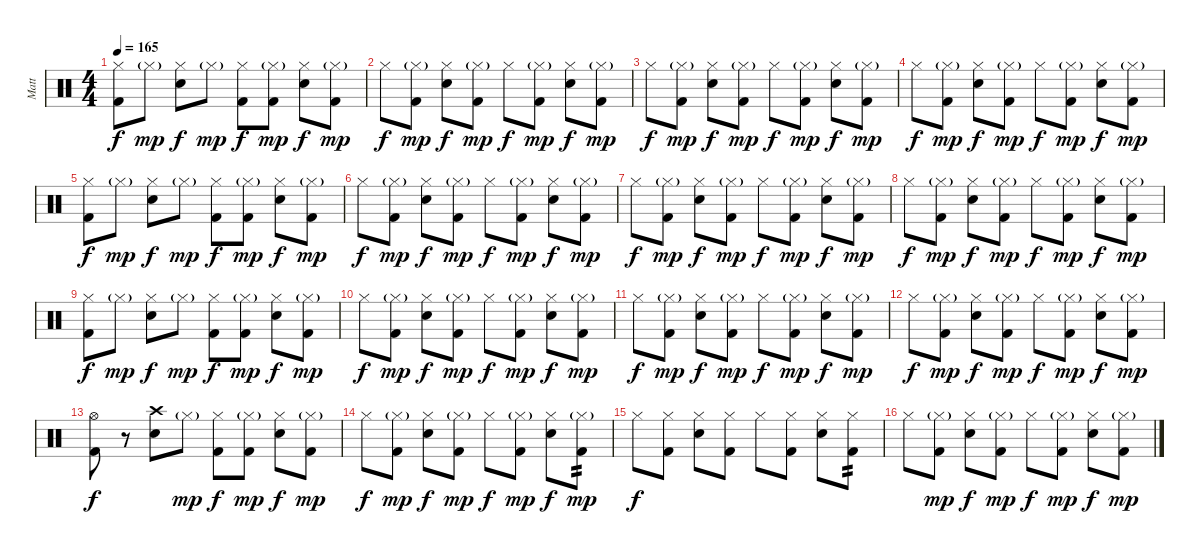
\track ("Matt" "Matt") {instrument percussion}
\staff {score}
\articulation defaults
\ts (4 4)
\tempo 165
\clef neutral
\ks c
("Hi-Hat (closed)" "Kick (hit) 2").8{dy f} "Hi-Hat (closed)"{g}.8{dy mp} ("Hi-Hat (closed)" "Snare (hit) 2").8{dy f} "Hi-Hat (closed)"{g}.8{dy mp} ("Hi-Hat (closed)" "Kick (hit) 2").8{dy f} ("Hi-Hat (closed)"{g} "Kick (hit) 2").8{dy mp} ("Hi-Hat (closed)" "Snare (hit) 2").8{dy f} ("Hi-Hat (closed)"{g} "Kick (hit) 2").8{dy mp} |
"Hi-Hat (closed)".8{dy f} ("Hi-Hat (closed)"{g} "Kick (hit) 2").8{dy mp} ("Hi-Hat (closed)" "Snare (hit) 2").8{dy f} ("Hi-Hat (closed)"{g} "Kick (hit) 2").8{dy mp} "Hi-Hat (closed)".8{dy f} ("Hi-Hat (closed)"{g} "Kick (hit) 2").8{dy mp} ("Hi-Hat (closed)" "Snare (hit) 2").8{dy f} ("Hi-Hat (closed)"{g} "Kick (hit) 2").8{dy mp} |
"Hi-Hat (closed)".8{dy f} ("Hi-Hat (closed)"{g} "Kick (hit) 2").8{dy mp} ("Hi-Hat (closed)" "Snare (hit) 2").8{dy f} ("Hi-Hat (closed)"{g} "Kick (hit) 2").8{dy mp} "Hi-Hat (closed)".8{dy f} ("Hi-Hat (closed)"{g} "Kick (hit) 2").8{dy mp} ("Hi-Hat (closed)" "Snare (hit) 2").8{dy f} ("Hi-Hat (closed)"{g} "Kick (hit) 2").8{dy mp} |
"Hi-Hat (closed)".8{dy f} ("Hi-Hat (closed)"{g} "Kick (hit) 2").8{dy mp} ("Hi-Hat (closed)" "Snare (hit) 2").8{dy f} ("Hi-Hat (closed)"{g} "Kick (hit) 2").8{dy mp} "Hi-Hat (closed)".8{dy f} ("Hi-Hat (closed)"{g} "Kick (hit) 2").8{dy mp} ("Hi-Hat (closed)" "Snare (hit) 2").8{dy f} ("Hi-Hat (closed)"{g} "Kick (hit) 2").8{dy mp} |
("Hi-Hat (closed)" "Kick (hit) 2").8{dy f} "Hi-Hat (closed)"{g}.8{dy mp} ("Hi-Hat (closed)" "Snare (hit) 2").8{dy f} "Hi-Hat (closed)"{g}.8{dy mp} ("Hi-Hat (closed)" "Kick (hit) 2").8{dy f} ("Hi-Hat (closed)"{g} "Kick (hit) 2").8{dy mp} ("Hi-Hat (closed)" "Snare (hit) 2").8{dy f} ("Hi-Hat (closed)"{g} "Kick (hit) 2").8{dy mp} |
"Hi-Hat (closed)".8{dy f} ("Hi-Hat (closed)"{g} "Kick (hit) 2").8{dy mp} ("Hi-Hat (closed)" "Snare (hit) 2").8{dy f} ("Hi-Hat (closed)"{g} "Kick (hit) 2").8{dy mp} "Hi-Hat (closed)".8{dy f} ("Hi-Hat (closed)"{g} "Kick (hit) 2").8{dy mp} ("Hi-Hat (closed)" "Snare (hit) 2").8{dy f} ("Hi-Hat (closed)"{g} "Kick (hit) 2").8{dy mp} |
"Hi-Hat (closed)".8{dy f} ("Hi-Hat (closed)"{g} "Kick (hit) 2").8{dy mp} ("Hi-Hat (closed)" "Snare (hit) 2").8{dy f} ("Hi-Hat (closed)"{g} "Kick (hit) 2").8{dy mp} "Hi-Hat (closed)".8{dy f} ("Hi-Hat (closed)"{g} "Kick (hit) 2").8{dy mp} ("Hi-Hat (closed)" "Snare (hit) 2").8{dy f} ("Hi-Hat (closed)"{g} "Kick (hit) 2").8{dy mp} |
"Hi-Hat (closed)".8{dy f} ("Hi-Hat (closed)"{g} "Kick (hit) 2").8{dy mp} ("Hi-Hat (closed)" "Snare (hit) 2").8{dy f} ("Hi-Hat (closed)"{g} "Kick (hit) 2").8{dy mp} "Hi-Hat (closed)".8{dy f} ("Hi-Hat (closed)"{g} "Kick (hit) 2").8{dy mp} ("Hi-Hat (closed)" "Snare (hit) 2").8{dy f} ("Hi-Hat (closed)"{g} "Kick (hit) 2").8{dy mp} |
("Hi-Hat (closed)" "Kick (hit) 2").8{dy f} "Hi-Hat (closed)"{g}.8{dy mp} ("Hi-Hat (closed)" "Snare (hit) 2").8{dy f} "Hi-Hat (closed)"{g}.8{dy mp} ("Hi-Hat (closed)" "Kick (hit) 2").8{dy f} ("Hi-Hat (closed)"{g} "Kick (hit) 2").8{dy mp} ("Hi-Hat (closed)" "Snare (hit) 2").8{dy f} ("Hi-Hat (closed)"{g} "Kick (hit) 2").8{dy mp} |
"Hi-Hat (closed)".8{dy f} ("Hi-Hat (closed)"{g} "Kick (hit) 2").8{dy mp} ("Hi-Hat (closed)" "Snare (hit) 2").8{dy f} ("Hi-Hat (closed)"{g} "Kick (hit) 2").8{dy mp} "Hi-Hat (closed)".8{dy f} ("Hi-Hat (closed)"{g} "Kick (hit) 2").8{dy mp} ("Hi-Hat (closed)" "Snare (hit) 2").8{dy f} ("Hi-Hat (closed)"{g} "Kick (hit) 2").8{dy mp} |
"Hi-Hat (closed)".8{dy f} ("Hi-Hat (closed)"{g} "Kick (hit) 2").8{dy mp} ("Hi-Hat (closed)" "Snare (hit) 2").8{dy f} ("Hi-Hat (closed)"{g} "Kick (hit) 2").8{dy mp} "Hi-Hat (closed)".8{dy f} ("Hi-Hat (closed)"{g} "Kick (hit) 2").8{dy mp} ("Hi-Hat (closed)" "Snare (hit) 2").8{dy f} ("Hi-Hat (closed)"{g} "Kick (hit) 2").8{dy mp} |
"Hi-Hat (closed)".8{dy f} ("Hi-Hat (closed)"{g} "Kick (hit) 2").8{dy mp} ("Hi-Hat (closed)" "Snare (hit) 2").8{dy f} ("Hi-Hat (closed)"{g} "Kick (hit) 2").8{dy mp} "Hi-Hat (closed)".8{dy f} ("Hi-Hat (closed)"{g} "Kick (hit) 2").8{dy mp} ("Hi-Hat (closed)" "Snare (hit) 2").8{dy f} ("Hi-Hat (closed)"{g} "Kick (hit) 2").8{dy mp} |
("Hi-Hat (open)" "Kick (hit) 2").8{dy f} r.8 ("Crash high (hit)" "Snare (hit) 2").8 "Hi-Hat (closed)"{g}.8{dy mp} ("Hi-Hat (closed)" "Kick (hit) 2").8{dy f} ("Hi-Hat (closed)"{g} "Kick (hit) 2").8{dy mp} ("Hi-Hat (closed)" "Snare (hit) 2").8{dy f} ("Hi-Hat (closed)"{g} "Kick (hit) 2").8{dy mp} |
"Hi-Hat (closed)".8{dy f} ("Hi-Hat (closed)"{g} "Kick (hit) 2").8{dy mp} ("Hi-Hat (closed)" "Snare (hit) 2").8{dy f} ("Hi-Hat (closed)"{g} "Kick (hit) 2").8{dy mp} "Hi-Hat (closed)".8{dy f} ("Hi-Hat (closed)"{g} "Kick (hit) 2").8{dy mp} ("Hi-Hat (closed)" "Snare (hit) 2").8{dy f} ("Hi-Hat (closed)"{g} "Kick (hit) 2").8{tp 2 dy mp} |
"Hi-Hat (closed)".8{dy f} ("Hi-Hat (closed)" "Kick (hit) 2").8 ("Hi-Hat (closed)" "Snare (hit) 2").8 ("Hi-Hat (closed)" "Kick (hit) 2").8 "Hi-Hat (closed)".8 ("Hi-Hat (closed)" "Kick (hit) 2").8 ("Hi-Hat (closed)" "Snare (hit) 2").8 ("Hi-Hat (closed)" "Kick (hit) 2").8{tp 2} |
"Hi-Hat (closed)".8 ("Hi-Hat (closed)"{g} "Kick (hit) 2").8{dy mp} ("Hi-Hat (closed)" "Snare (hit) 2").8{dy f} ("Hi-Hat (closed)"{g} "Kick (hit) 2").8{dy mp} "Hi-Hat (closed)".8{dy f} ("Hi-Hat (closed)"{g} "Kick (hit) 2").8{dy mp} ("Hi-Hat (closed)" "Snare (hit) 2").8{dy f} ("Hi-Hat (closed)"{g} "Kick (hit) 2").8{dy mp}
